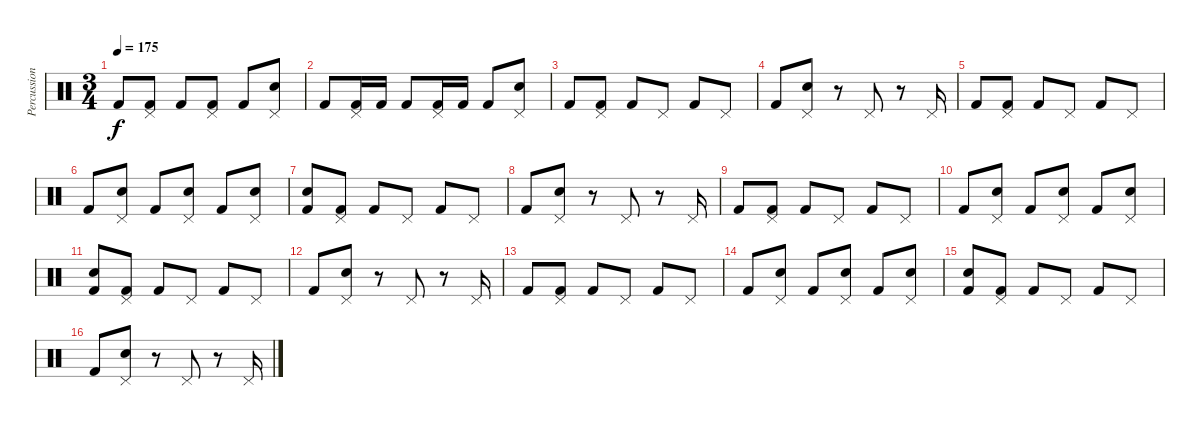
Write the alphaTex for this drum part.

\track ("Percussion" "Percussion") {instrument percussion}
\staff {score}
\articulation defaults
\ts (3 4)
\tempo 175
\clef neutral
\ks c "Kick (hit) 2".8{dy f}
("Pedal Hi-Hat (hit)" "Kick (hit) 2").8 "Kick (hit) 2".8 ("Pedal Hi-Hat (hit)" "Kick (hit) 2").8 "Kick (hit) 2".8 ("Pedal Hi-Hat (hit)" "Electric Snare (hit)").8 |
"Kick (hit) 2".8 ("Pedal Hi-Hat (hit)" "Kick (hit) 2").16 "Kick (hit) 2".16 "Kick (hit) 2".8 ("Pedal Hi-Hat (hit)" "Kick (hit) 2").16 "Kick (hit) 2".16 "Kick (hit) 2".8 ("Pedal Hi-Hat (hit)" "Electric Snare (hit)").8 |
"Kick (hit) 2".8 ("Pedal Hi-Hat (hit)" "Kick (hit) 2").8 "Kick (hit) 2".8 "Pedal Hi-Hat (hit)".8 "Kick (hit) 2".8 "Pedal Hi-Hat (hit)".8 |
"Kick (hit) 2".8 ("Pedal Hi-Hat (hit)" "Electric Snare (hit)").8 r.8 "Pedal Hi-Hat (hit)".8 r.8 "Pedal Hi-Hat (hit)".16 |
"Kick (hit) 2".8 ("Pedal Hi-Hat (hit)" "Kick (hit) 2").8 "Kick (hit) 2".8 "Pedal Hi-Hat (hit)".8 "Kick (hit) 2".8 "Pedal Hi-Hat (hit)".8 |
"Kick (hit) 2".8 ("Pedal Hi-Hat (hit)" "Electric Snare (hit)").8 "Kick (hit) 2".8 ("Pedal Hi-Hat (hit)" "Electric Snare (hit)").8 "Kick (hit) 2".8 ("Pedal Hi-Hat (hit)" "Electric Snare (hit)").8 |
("Electric Snare (hit)" "Kick (hit) 2").8 ("Pedal Hi-Hat (hit)" "Kick (hit) 2").8 "Kick (hit) 2".8 "Pedal Hi-Hat (hit)".8 "Kick (hit) 2".8 "Pedal Hi-Hat (hit)".8 |
"Kick (hit) 2".8 ("Pedal Hi-Hat (hit)" "Electric Snare (hit)").8 r.8 "Pedal Hi-Hat (hit)".8 r.8 "Pedal Hi-Hat (hit)".16 |
"Kick (hit) 2".8 ("Pedal Hi-Hat (hit)" "Kick (hit) 2").8 "Kick (hit) 2".8 "Pedal Hi-Hat (hit)".8 "Kick (hit) 2".8 "Pedal Hi-Hat (hit)".8 |
"Kick (hit) 2".8 ("Pedal Hi-Hat (hit)" "Electric Snare (hit)").8 "Kick (hit) 2".8 ("Pedal Hi-Hat (hit)" "Electric Snare (hit)").8 "Kick (hit) 2".8 ("Pedal Hi-Hat (hit)" "Electric Snare (hit)").8 |
("Electric Snare (hit)" "Kick (hit) 2").8 ("Pedal Hi-Hat (hit)" "Kick (hit) 2").8 "Kick (hit) 2".8 "Pedal Hi-Hat (hit)".8 "Kick (hit) 2".8 "Pedal Hi-Hat (hit)".8 |
"Kick (hit) 2".8 ("Pedal Hi-Hat (hit)" "Electric Snare (hit)").8 r.8 "Pedal Hi-Hat (hit)".8 r.8 "Pedal Hi-Hat (hit)".16 |
"Kick (hit) 2".8 ("Pedal Hi-Hat (hit)" "Kick (hit) 2").8 "Kick (hit) 2".8 "Pedal Hi-Hat (hit)".8 "Kick (hit) 2".8 "Pedal Hi-Hat (hit)".8 |
"Kick (hit) 2".8 ("Pedal Hi-Hat (hit)" "Electric Snare (hit)").8 "Kick (hit) 2".8 ("Pedal Hi-Hat (hit)" "Electric Snare (hit)").8 "Kick (hit) 2".8 ("Pedal Hi-Hat (hit)" "Electric Snare (hit)").8 |
("Electric Snare (hit)" "Kick (hit) 2").8 ("Pedal Hi-Hat (hit)" "Kick (hit) 2").8 "Kick (hit) 2".8 "Pedal Hi-Hat (hit)".8 "Kick (hit) 2".8 "Pedal Hi-Hat (hit)".8 |
"Kick (hit) 2".8 ("Pedal Hi-Hat (hit)" "Electric Snare (hit)").8 r.8 "Pedal Hi-Hat (hit)".8 r.8 "Pedal Hi-Hat (hit)".16
